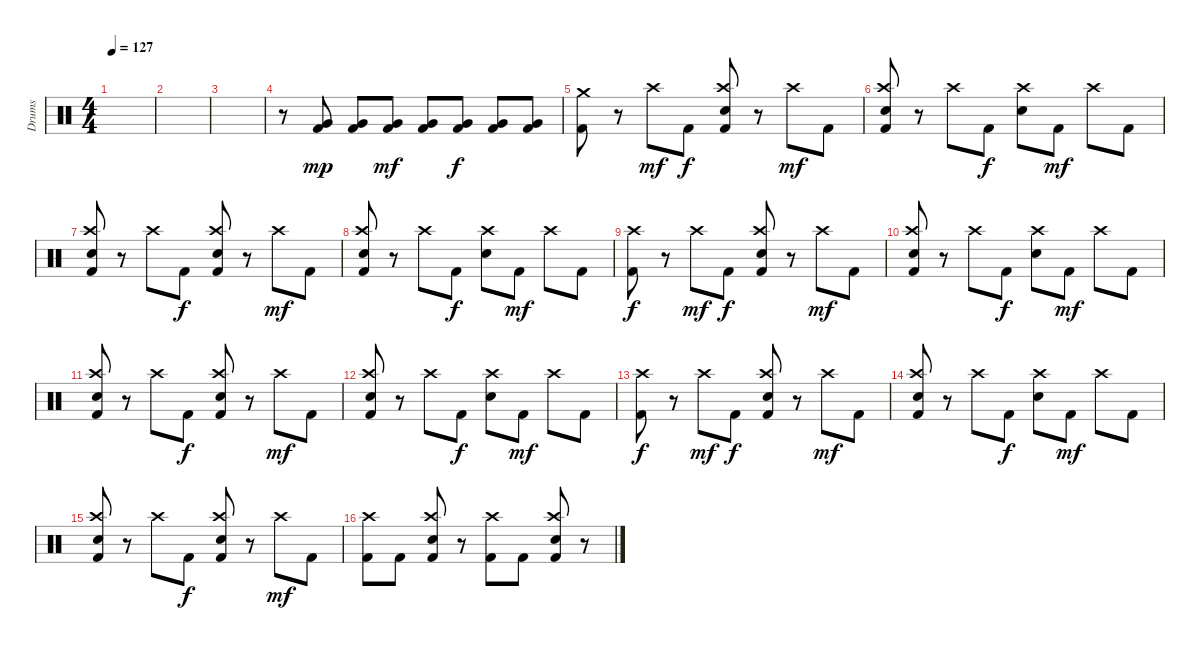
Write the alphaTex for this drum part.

\track ("Drums" "Drums") {instrument percussion}
\staff {score}
\articulation defaults
\ts (4 4)
\tempo 127
\clef neutral
\ks c
|
|
|
r.8 ("Very Low Tom (hit)" "Kick (hit) 2").8{dy mp} ("Very Low Tom (hit)" "Kick (hit) 2").8 ("Very Low Tom (hit)" "Kick (hit) 2").8{dy mf} ("Very Low Tom (hit)" "Kick (hit) 2").8 ("Very Low Tom (hit)" "Kick (hit) 2").8{dy f} ("Very Low Tom (hit)" "Kick (hit) 2").8 ("Very Low Tom (hit)" "Kick (hit) 2").8 |
("Crash medium (hit)" "Kick (hit) 2").8 r.8 "Crash high (hit)".8{dy mf} "Kick (hit) 2".8{dy f} ("Crash high (hit)" "Electric Snare (hit)" "Kick (hit) 2").8 r.8 "Crash high (hit)".8{dy mf} "Kick (hit) 2".8 |
("Crash high (hit)" "Electric Snare (hit)" "Kick (hit) 2").8 r.8 "Crash high (hit)".8 "Kick (hit) 2".8{dy f} ("Crash high (hit)" "Electric Snare (hit)").8 "Kick (hit) 2".8{dy mf} "Crash high (hit)".8 "Kick (hit) 2".8 |
("Crash high (hit)" "Electric Snare (hit)" "Kick (hit) 2").8 r.8 "Crash high (hit)".8 "Kick (hit) 2".8{dy f} ("Crash high (hit)" "Electric Snare (hit)" "Kick (hit) 2").8 r.8 "Crash high (hit)".8{dy mf} "Kick (hit) 2".8 |
("Crash high (hit)" "Electric Snare (hit)" "Kick (hit) 2").8 r.8 "Crash high (hit)".8 "Kick (hit) 2".8{dy f} ("Crash high (hit)" "Electric Snare (hit)").8 "Kick (hit) 2".8{dy mf} "Crash high (hit)".8 "Kick (hit) 2".8 |
("Crash high (hit)" "Kick (hit) 2").8{dy f} r.8 "Crash high (hit)".8{dy mf} "Kick (hit) 2".8{dy f} ("Crash high (hit)" "Electric Snare (hit)" "Kick (hit) 2").8 r.8 "Crash high (hit)".8{dy mf} "Kick (hit) 2".8 |
("Crash high (hit)" "Electric Snare (hit)" "Kick (hit) 2").8 r.8 "Crash high (hit)".8 "Kick (hit) 2".8{dy f} ("Crash high (hit)" "Electric Snare (hit)").8 "Kick (hit) 2".8{dy mf} "Crash high (hit)".8 "Kick (hit) 2".8 |
("Crash high (hit)" "Electric Snare (hit)" "Kick (hit) 2").8 r.8 "Crash high (hit)".8 "Kick (hit) 2".8{dy f} ("Crash high (hit)" "Electric Snare (hit)" "Kick (hit) 2").8 r.8 "Crash high (hit)".8{dy mf} "Kick (hit) 2".8 |
("Crash high (hit)" "Electric Snare (hit)" "Kick (hit) 2").8 r.8 "Crash high (hit)".8 "Kick (hit) 2".8{dy f} ("Crash high (hit)" "Electric Snare (hit)").8 "Kick (hit) 2".8{dy mf} "Crash high (hit)".8 "Kick (hit) 2".8 |
("Crash high (hit)" "Kick (hit) 2").8{dy f} r.8 "Crash high (hit)".8{dy mf} "Kick (hit) 2".8{dy f} ("Crash high (hit)" "Electric Snare (hit)" "Kick (hit) 2").8 r.8 "Crash high (hit)".8{dy mf} "Kick (hit) 2".8 |
("Crash high (hit)" "Electric Snare (hit)" "Kick (hit) 2").8 r.8 "Crash high (hit)".8 "Kick (hit) 2".8{dy f} ("Crash high (hit)" "Electric Snare (hit)").8 "Kick (hit) 2".8{dy mf} "Crash high (hit)".8 "Kick (hit) 2".8 |
("Crash high (hit)" "Electric Snare (hit)" "Kick (hit) 2").8 r.8 "Crash high (hit)".8 "Kick (hit) 2".8{dy f} ("Crash high (hit)" "Electric Snare (hit)" "Kick (hit) 2").8 r.8 "Crash high (hit)".8{dy mf} "Kick (hit) 2".8 |
("Crash high (hit)" "Kick (hit) 2").8 "Kick (hit) 2".8 ("Crash high (hit)" "Electric Snare (hit)" "Kick (hit) 2").8 r.8 ("Crash high (hit)" "Kick (hit) 2").8 "Kick (hit) 2".8 ("Crash high (hit)" "Electric Snare (hit)" "Kick (hit) 2").8 r.8
